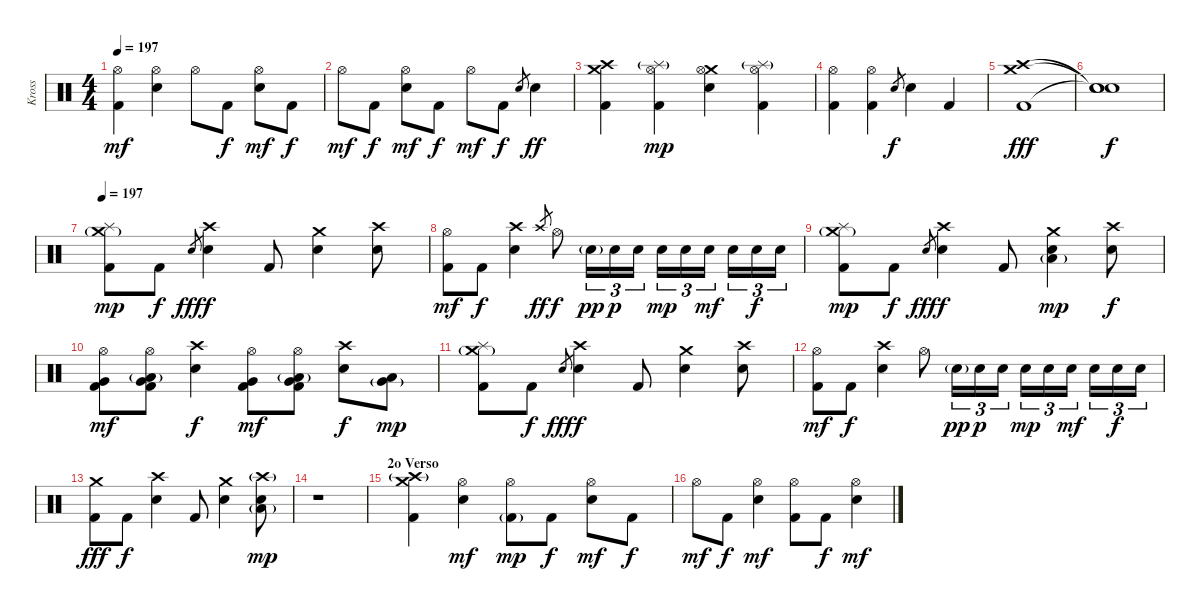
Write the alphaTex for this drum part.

\track ("Kross" "Kross") {instrument percussion}
\staff {score}
\articulation defaults
\ts (4 4)
\tempo 197
\clef neutral
\ks c
("Hi-Hat (open)" "Kick (hit) 2").4{dy mf} ("Hi-Hat (open)" "Electric Snare (hit)").4 "Hi-Hat (open)".8 "Kick (hit) 2".8{dy f} ("Hi-Hat (open)" "Electric Snare (hit)").8{dy mf} "Kick (hit) 2".8{dy f} |
"Hi-Hat (open)".8{dy mf} "Kick (hit) 2".8{dy f} ("Hi-Hat (open)" "Electric Snare (hit)").8{dy mf} "Kick (hit) 2".8{dy f} "Hi-Hat (open)".8{dy mf} "Kick (hit) 2".8{dy f} "Electric Snare (hit)".8{gr} "Electric Snare (hit)".4{dy ff} |
("Crash medium (hit)" "Crash high (hit)" "Kick (hit) 2").4 ("Hi-Hat (open)" "Splash (hit)"{g} "Kick (hit) 2").4{dy mp} ("Crash medium (hit)" "Hi-Hat (open)" "Electric Snare (hit)").4 ("Hi-Hat (open)" "Splash (hit)"{g} "Kick (hit) 2").4 |
("Hi-Hat (open)" "Kick (hit) 2").4 ("Hi-Hat (open)" "Kick (hit) 2").4 "Electric Snare (hit)".8{gr dy f} "Electric Snare (hit)".4 "Kick (hit) 2".4 |
("Crash high (hit)" "Crash medium (hit)" "Kick (hit) 2").1{dy fff} |
("Snare (hit)"{t} "Snare (hit)"{t} "Snare (hit)"{t}).1{dy f} |
\tempo 197
("Splash (hit)" "Crash medium (hit)"{g} "Kick (hit) 2").8{dy mp} "Kick (hit) 2".8{dy f} "Electric Snare (hit)".8{gr dy fff} ("Crash high (hit)" "Electric Snare (hit)").4{dy f} "Kick (hit) 2".8 ("Crash medium (hit)" "Electric Snare (hit)").4 ("Crash high (hit)" "Electric Snare (hit)").8 |
("Hi-Hat (open)" "Kick (hit) 2").8{dy mf} "Kick (hit) 2".8{dy f} ("Crash high (hit)" "Electric Snare (hit)").4 "Crash high (hit)".8{gr dy ff} "Hi-Hat (open)".8{dy f} "Electric Snare (hit)"{g}.16{tu (3 2) dy pp} "Electric Snare (hit)".16{tu (3 2) dy p} "Electric Snare (hit)".16{tu (3 2)} "Electric Snare (hit)".16{tu (3 2) dy mp} "Electric Snare (hit)".16{tu (3 2)} "Electric Snare (hit)".16{tu (3 2) dy mf} "Electric Snare (hit)".16{tu (3 2)} "Electric Snare (hit)".16{tu (3 2) dy f} "Electric Snare (hit)".16{tu (3 2)} |
("Splash (hit)" "Crash medium (hit)"{g} "Kick (hit) 2").8{dy mp} "Kick (hit) 2".8{dy f} "Electric Snare (hit)".8{gr dy fff} ("Crash high (hit)" "Electric Snare (hit)").4{dy f} "Kick (hit) 2".8 ("Crash medium (hit)" "Electric Snare (hit)" "Low Floor Tom (hit)"{g}).4{dy mp} ("Crash high (hit)" "Electric Snare (hit)").8{dy f} |
("Hi-Hat (open)" "Very Low Tom (hit)" "Kick (hit) 2").8{dy mf} ("Hi-Hat (open)" "Low Floor Tom (hit)"{g} "Very Low Tom (hit)" "Kick (hit) 2").8 ("Crash high (hit)" "Electric Snare (hit)").4{dy f} ("Hi-Hat (open)" "Very Low Tom (hit)" "Kick (hit) 2").8{dy mf} ("Hi-Hat (open)" "Low Floor Tom (hit)"{g} "Very Low Tom (hit)" "Kick (hit) 2").8 ("Crash high (hit)" "Electric Snare (hit)").8{dy f} ("Low Floor Tom (hit)" "Very Low Tom (hit)"{g}).8{dy mp} |
("Splash (hit)" "Crash medium (hit)"{g} "Kick (hit) 2").8 "Kick (hit) 2".8{dy f} "Electric Snare (hit)".8{gr dy fff} ("Crash high (hit)" "Electric Snare (hit)").4{dy f} "Kick (hit) 2".8 ("Crash medium (hit)" "Electric Snare (hit)").4 ("Crash high (hit)" "Electric Snare (hit)").8 |
("Hi-Hat (open)" "Kick (hit) 2").8{dy mf} "Kick (hit) 2".8{dy f} ("Crash high (hit)" "Electric Snare (hit)").4 "Hi-Hat (open)".8 "Electric Snare (hit)"{g}.16{tu (3 2) dy pp} "Electric Snare (hit)".16{tu (3 2) dy p} "Electric Snare (hit)".16{tu (3 2)} "Electric Snare (hit)".16{tu (3 2) dy mp} "Electric Snare (hit)".16{tu (3 2)} "Electric Snare (hit)".16{tu (3 2) dy mf} "Electric Snare (hit)".16{tu (3 2)} "Electric Snare (hit)".16{tu (3 2) dy f} "Electric Snare (hit)".16{tu (3 2)} |
("Crash medium (hit)" "Kick (hit) 2").8{dy fff} "Kick (hit) 2".8{dy f} ("Crash high (hit)" "Electric Snare (hit)").4 "Kick (hit) 2".8 ("Crash medium (hit)" "Electric Snare (hit)").4 ("Crash high (hit)"{g} "Electric Snare (hit)" "Low Floor Tom (hit)"{g}).8{dy mp} |
r.1 |
\section ("" "2o Verso")
("Crash medium (hit)" "Crash high (hit)"{g} "Kick (hit) 2").4 ("Hi-Hat (open)" "Electric Snare (hit)").4{dy mf} ("Hi-Hat (open)" "Kick (hit) 2"{g}).8{dy mp} "Kick (hit) 2".8{dy f} ("Hi-Hat (open)" "Electric Snare (hit)").8{dy mf} "Kick (hit) 2".8{dy f} |
"Hi-Hat (open)".8{dy mf} "Kick (hit) 2".8{dy f} ("Hi-Hat (open)" "Electric Snare (hit)").4{dy mf} ("Hi-Hat (open)" "Kick (hit) 2").8 "Kick (hit) 2".8{dy f} ("Hi-Hat (open)" "Electric Snare (hit)").4{dy mf}
